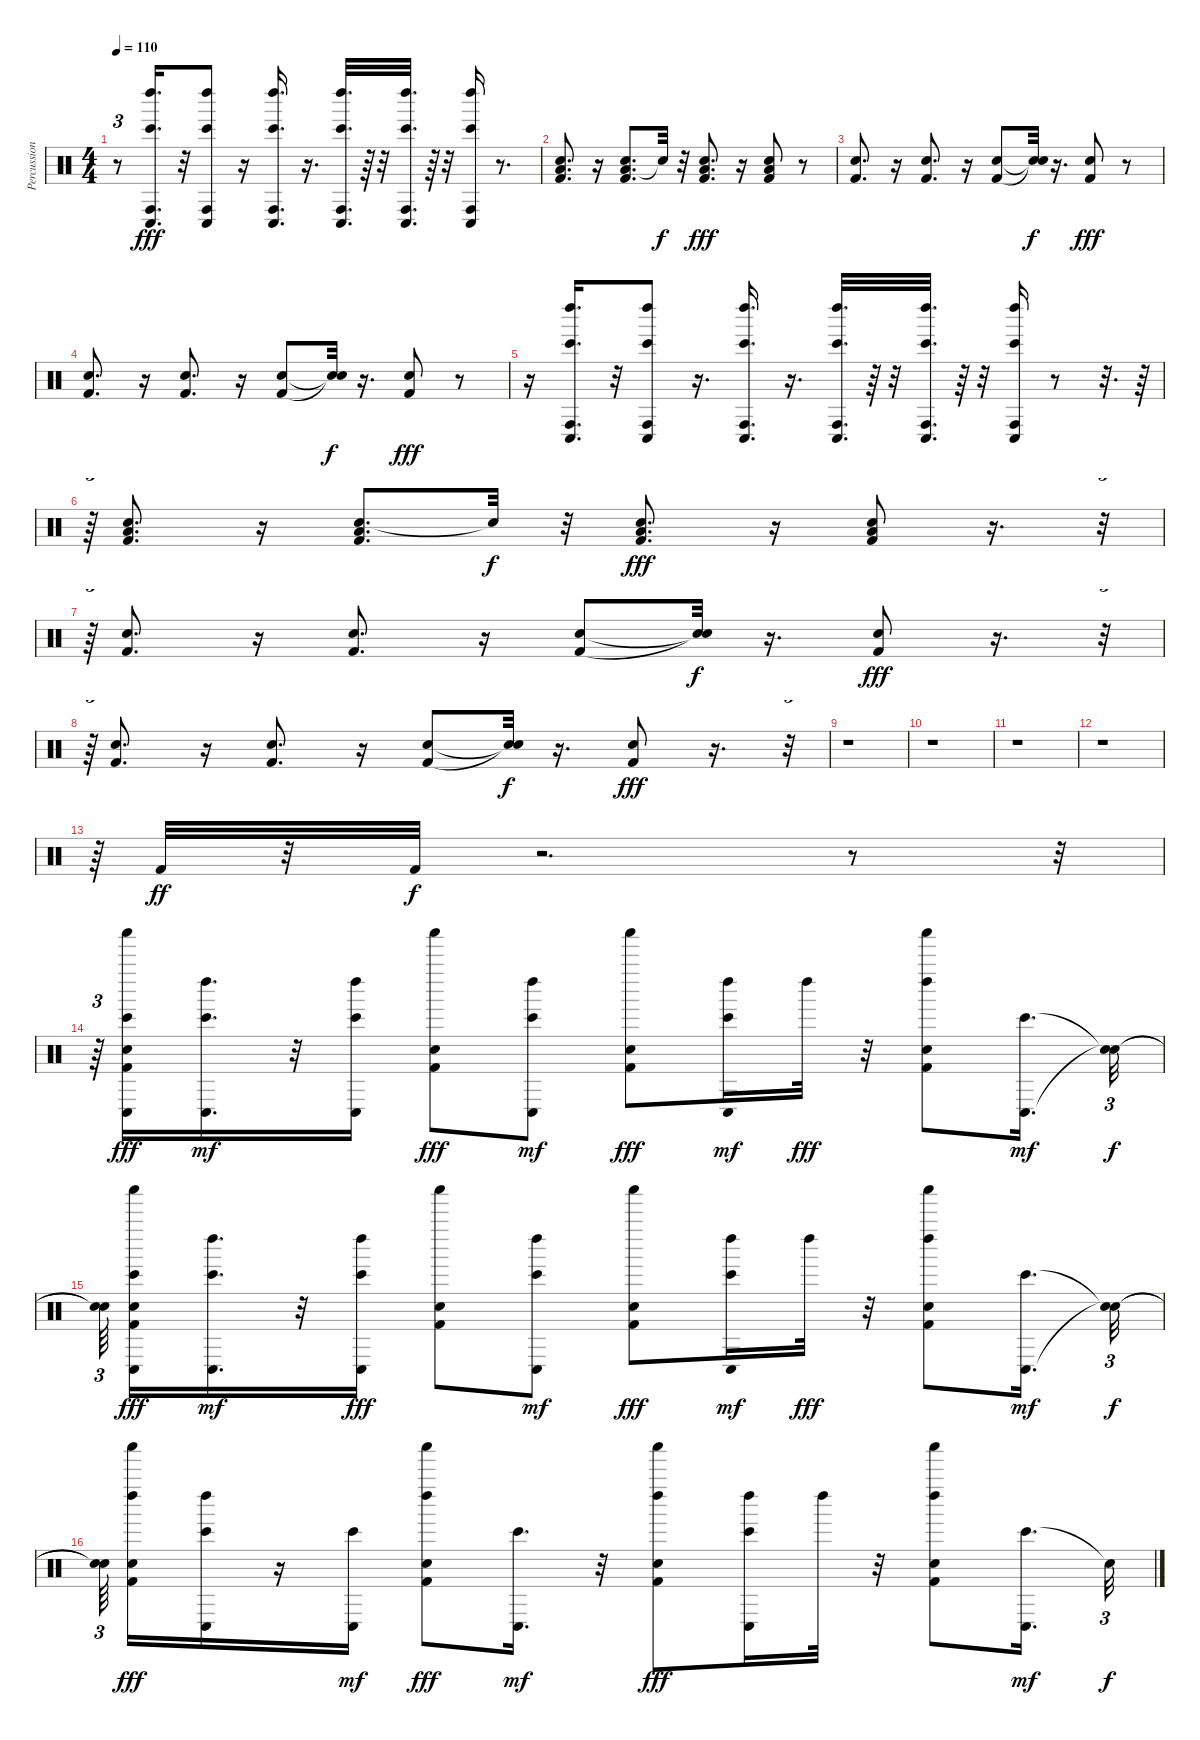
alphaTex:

\track ("Percussion" "Percussion") {instrument percussion}
\staff {score}
\articulation defaults
\ts (4 4)
\tempo 110
\clef neutral
\ks c
r.8{tu (3 2) dy mf} ("Bongo High (hit)" "Conga low (hit)" "Left Maraca (hit)" "Conga high (hit)").16{d dy fff} r.32 ("Conga low (hit)" "Left Maraca (hit)" "Conga high (hit)" "Bongo High (hit)").8 r.16 ("Conga low (hit)" "Bongo High (hit)" "Conga high (hit)" "Left Maraca (hit)").16{d} r.16{d} ("Bongo High (hit)" "Conga low (hit)" "Conga high (hit)" "Left Maraca (hit)").32{d} r.64 r.32 ("Bongo High (hit)" "Left Maraca (hit)" "Conga high (hit)" "Conga low (hit)").32{d} r.64 r.32 ("Conga low (hit)" "Left Maraca (hit)" "Bongo High (hit)" "Conga high (hit)").16 r.8{d} |
("Low Floor Tom (hit)" "Hand Clap (hit)" "Kick (hit) 2").8{d} r.16 ("Low Floor Tom (hit)" "Hand Clap (hit)" "Kick (hit) 2").8{d} "Snare (hit)"{t}.32{dy f} r.32 ("Low Floor Tom (hit)" "Kick (hit) 2" "Hand Clap (hit)").8{d dy fff} r.16 ("Kick (hit) 2" "Hand Clap (hit)" "Low Floor Tom (hit)").8 r.8 |
("Kick (hit) 2" "Hand Clap (hit)").8{d} r.16 ("Kick (hit) 2" "Hand Clap (hit)").8{d} r.16 ("Hand Clap (hit)" "Kick (hit) 2").8 ("Snare (hit)"{t} "Snare (hit)"{t}).32{dy f} r.16{d} ("Kick (hit) 2" "Hand Clap (hit)").8{dy fff} r.8 |
("Hand Clap (hit)" "Kick (hit) 2").8{d} r.16 ("Kick (hit) 2" "Hand Clap (hit)").8{d} r.16 ("Kick (hit) 2" "Hand Clap (hit)").8 ("Snare (hit)"{t} "Snare (hit)"{t}).32{dy f} r.16{d} ("Hand Clap (hit)" "Kick (hit) 2").8{dy fff} r.8 |
r.16 ("Conga low (hit)" "Left Maraca (hit)" "Bongo High (hit)" "Conga high (hit)").16{d} r.32 ("Conga low (hit)" "Left Maraca (hit)" "Conga high (hit)" "Bongo High (hit)").8 r.16{d} ("Left Maraca (hit)" "Conga high (hit)" "Bongo High (hit)" "Conga low (hit)").16{d} r.16{d} ("Conga low (hit)" "Conga high (hit)" "Bongo High (hit)" "Left Maraca (hit)").32{d} r.64 r.32 ("Conga low (hit)" "Bongo High (hit)" "Left Maraca (hit)" "Conga high (hit)").32{d} r.64 r.32 ("Conga low (hit)" "Left Maraca (hit)" "Bongo High (hit)" "Conga high (hit)").16 r.8 r.32{d} r.64 |
r.64{tu (3 2)} ("Kick (hit) 2" "Hand Clap (hit)" "Low Floor Tom (hit)").8{d} r.16 ("Hand Clap (hit)" "Kick (hit) 2" "Low Floor Tom (hit)").8{d} "Snare (hit)"{t}.32{dy f} r.32 ("Kick (hit) 2" "Hand Clap (hit)" "Low Floor Tom (hit)").8{d dy fff} r.16 ("Kick (hit) 2" "Hand Clap (hit)" "Low Floor Tom (hit)").8 r.16{d} r.32{tu (3 2)} |
r.64{tu (3 2)} ("Hand Clap (hit)" "Kick (hit) 2").8{d} r.16 ("Kick (hit) 2" "Hand Clap (hit)").8{d} r.16 ("Kick (hit) 2" "Hand Clap (hit)").8 ("Snare (hit)"{t} "Snare (hit)"{t}).32{dy f} r.16{d} ("Kick (hit) 2" "Hand Clap (hit)").8{dy fff} r.16{d} r.32{tu (3 2)} |
r.64{tu (3 2)} ("Hand Clap (hit)" "Kick (hit) 2").8{d} r.16 ("Hand Clap (hit)" "Kick (hit) 2").8{d} r.16 ("Hand Clap (hit)" "Kick (hit) 2").8 ("Snare (hit)"{t} "Snare (hit)"{t}).32{dy f} r.16{d} ("Kick (hit) 2" "Hand Clap (hit)").8{dy fff} r.16{d} r.32{tu (3 2)} |
r.1 |
r.1 |
r.1 |
r.1 |
r.64{tu (3 2)} "Kick (hit) 2".32{dy ff} r.32 "Kick (hit) 2".32{dy f} r.2{d} r.8 r.32{tu (3 2)} |
r.64{tu (3 2)} ("Conga low (hit)" "Hand Clap (hit)" "Bongo High (hit)" "Shaker (hit)" "Kick (hit) 2").16{dy fff} ("Left Maraca (hit)" "Conga low (hit)" "Bongo High (hit)").16{d dy mf} r.32 ("Conga low (hit)" "Left Maraca (hit)" "Bongo High (hit)").16 ("Hand Clap (hit)" "Kick (hit) 2" "Shaker (hit)").8{dy fff} ("Bongo High (hit)" "Left Maraca (hit)" "Conga low (hit)").8{dy mf} ("Hand Clap (hit)" "Shaker (hit)" "Kick (hit) 2").8{dy fff} ("Left Maraca (hit)" "Conga low (hit)" "Bongo High (hit)").16{dy mf} "Left Maraca (hit)".32{dy fff} r.32 ("Left Maraca (hit)" "Shaker (hit)" "Kick (hit) 2" "Hand Clap (hit)").8 ("Bongo High (hit)" "Conga low (hit)").16{d dy mf} ("Snare (hit)"{t} "Snare (hit)"{t}).32{tu (3 2) dy f} |
("Snare (hit)"{t} "Snare (hit)"{t}).64{tu (3 2) beam splitsecondary} ("Hand Clap (hit)" "Shaker (hit)" "Conga low (hit)" "Bongo High (hit)" "Kick (hit) 2").16{dy fff} ("Left Maraca (hit)" "Bongo High (hit)" "Conga low (hit)").16{d dy mf} r.32 ("Bongo High (hit)" "Conga low (hit)" "Left Maraca (hit)").16{dy fff} ("Kick (hit) 2" "Hand Clap (hit)" "Shaker (hit)").8 ("Left Maraca (hit)" "Bongo High (hit)" "Conga low (hit)").8{dy mf} ("Shaker (hit)" "Kick (hit) 2" "Hand Clap (hit)").8{dy fff} ("Left Maraca (hit)" "Bongo High (hit)" "Conga low (hit)").16{dy mf} "Left Maraca (hit)".32{dy fff} r.32 ("Shaker (hit)" "Left Maraca (hit)" "Kick (hit) 2" "Hand Clap (hit)").8 ("Conga low (hit)" "Bongo High (hit)").16{d dy mf} ("Snare (hit)"{t} "Snare (hit)"{t}).32{tu (3 2) dy f} |
("Snare (hit)"{t} "Snare (hit)"{t}).64{tu (3 2) beam splitsecondary} ("Hand Clap (hit)" "Shaker (hit)" "Kick (hit) 2" "Left Maraca (hit)").16{dy fff} ("Conga low (hit)" "Bongo High (hit)" "Left Maraca (hit)").16 r.16 ("Conga low (hit)" "Bongo High (hit)").16{dy mf} ("Left Maraca (hit)" "Shaker (hit)" "Hand Clap (hit)" "Kick (hit) 2").8{dy fff} ("Conga low (hit)" "Bongo High (hit)").16{d dy mf} r.32 ("Left Maraca (hit)" "Hand Clap (hit)" "Shaker (hit)" "Kick (hit) 2").8{dy fff} ("Bongo High (hit)" "Conga low (hit)" "Left Maraca (hit)").16 "Left Maraca (hit)".32 r.32 ("Left Maraca (hit)" "Hand Clap (hit)" "Shaker (hit)" "Kick (hit) 2").8 ("Bongo High (hit)" "Conga low (hit)").16{d dy mf} "Snare (hit)"{t}.32{tu (3 2) dy f}
